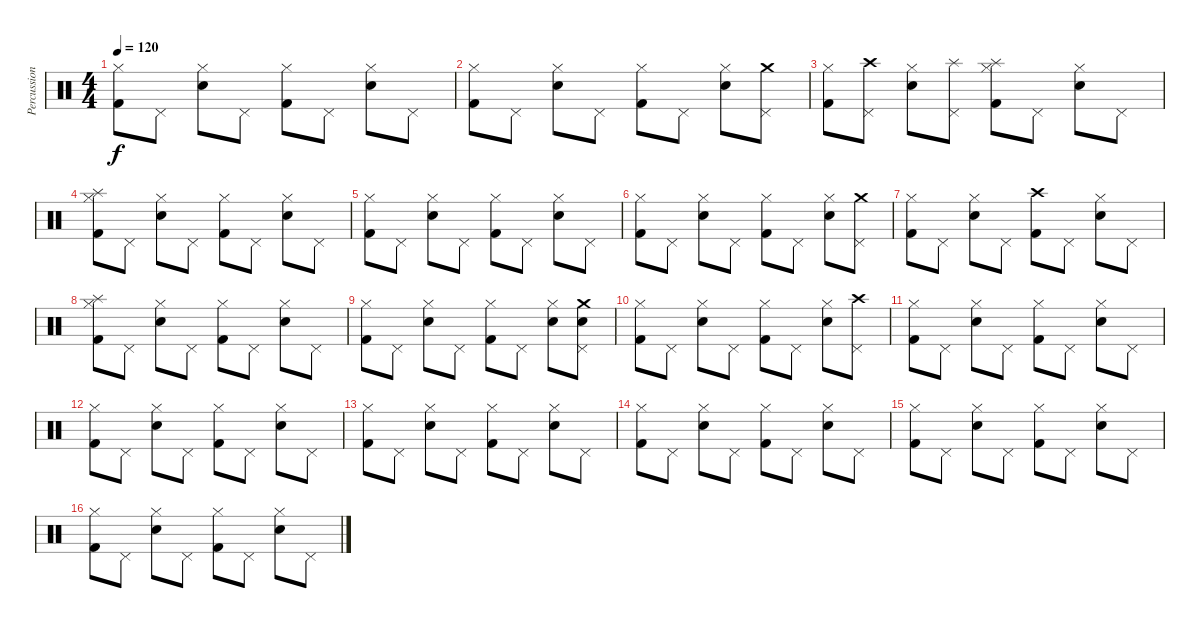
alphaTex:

\track ("Percussion" "Percussion") {instrument percussion}
\staff {score}
\articulation defaults
\ts (4 4)
\tempo 120
\clef neutral
\ks c
("Kick (hit) 2" "Hi-Hat (closed)").8{dy f} "Pedal Hi-Hat (hit)".8 ("Snare (hit) 2" "Hi-Hat (closed)").8 "Pedal Hi-Hat (hit)".8 ("Kick (hit) 2" "Hi-Hat (closed)").8 "Pedal Hi-Hat (hit)".8 ("Snare (hit) 2" "Hi-Hat (closed)").8 "Pedal Hi-Hat (hit)".8 |
("Kick (hit) 2" "Hi-Hat (closed)").8 "Pedal Hi-Hat (hit)".8 ("Snare (hit) 2" "Hi-Hat (closed)").8 "Pedal Hi-Hat (hit)".8 ("Kick (hit) 2" "Hi-Hat (closed)").8 "Pedal Hi-Hat (hit)".8 ("Snare (hit) 2" "Hi-Hat (closed)").8 ("Pedal Hi-Hat (hit)" "Crash medium (hit)").8 |
("Kick (hit) 2" "Hi-Hat (closed)").8 ("Pedal Hi-Hat (hit)" "Crash high (hit)").8 ("Snare (hit) 2" "Hi-Hat (closed)").8 ("Pedal Hi-Hat (hit)" "Splash (hit)").8 ("Kick (hit) 2" "Hi-Hat (closed)" "Splash (hit)").8 "Pedal Hi-Hat (hit)".8 ("Snare (hit) 2" "Hi-Hat (closed)").8 "Pedal Hi-Hat (hit)".8 |
("Kick (hit) 2" "Hi-Hat (closed)" "Splash (hit)").8 "Pedal Hi-Hat (hit)".8 ("Snare (hit) 2" "Hi-Hat (closed)").8 "Pedal Hi-Hat (hit)".8 ("Kick (hit) 2" "Hi-Hat (closed)").8 "Pedal Hi-Hat (hit)".8 ("Snare (hit) 2" "Hi-Hat (closed)").8 "Pedal Hi-Hat (hit)".8 |
("Kick (hit) 2" "Hi-Hat (closed)").8 "Pedal Hi-Hat (hit)".8 ("Snare (hit) 2" "Hi-Hat (closed)").8 "Pedal Hi-Hat (hit)".8 ("Kick (hit) 2" "Hi-Hat (closed)").8 "Pedal Hi-Hat (hit)".8 ("Snare (hit) 2" "Hi-Hat (closed)").8 "Pedal Hi-Hat (hit)".8 |
("Kick (hit) 2" "Hi-Hat (closed)").8 "Pedal Hi-Hat (hit)".8 ("Snare (hit) 2" "Hi-Hat (closed)").8 "Pedal Hi-Hat (hit)".8 ("Kick (hit) 2" "Hi-Hat (closed)").8 "Pedal Hi-Hat (hit)".8 ("Snare (hit) 2" "Hi-Hat (closed)").8 ("Pedal Hi-Hat (hit)" "Crash medium (hit)").8 |
("Kick (hit) 2" "Hi-Hat (closed)").8 "Pedal Hi-Hat (hit)".8 ("Snare (hit) 2" "Hi-Hat (closed)").8 "Pedal Hi-Hat (hit)".8 ("Kick (hit) 2" "Crash high (hit)").8 "Pedal Hi-Hat (hit)".8 ("Snare (hit) 2" "Hi-Hat (closed)").8 "Pedal Hi-Hat (hit)".8 |
("Kick (hit) 2" "Hi-Hat (closed)" "Splash (hit)").8 "Pedal Hi-Hat (hit)".8 ("Snare (hit) 2" "Hi-Hat (closed)").8 "Pedal Hi-Hat (hit)".8 ("Kick (hit) 2" "Hi-Hat (closed)").8 "Pedal Hi-Hat (hit)".8 ("Snare (hit) 2" "Hi-Hat (closed)").8 "Pedal Hi-Hat (hit)".8 |
("Kick (hit) 2" "Hi-Hat (closed)").8 "Pedal Hi-Hat (hit)".8 ("Snare (hit) 2" "Hi-Hat (closed)").8 "Pedal Hi-Hat (hit)".8 ("Kick (hit) 2" "Hi-Hat (closed)").8 "Pedal Hi-Hat (hit)".8 ("Snare (hit) 2" "Hi-Hat (closed)").8 ("Pedal Hi-Hat (hit)" "Crash medium (hit)" "Snare (hit) 2").8 |
("Kick (hit) 2" "Hi-Hat (closed)").8 "Pedal Hi-Hat (hit)".8 ("Snare (hit) 2" "Hi-Hat (closed)").8 "Pedal Hi-Hat (hit)".8 ("Kick (hit) 2" "Hi-Hat (closed)").8 "Pedal Hi-Hat (hit)".8 ("Snare (hit) 2" "Hi-Hat (closed)").8 ("Pedal Hi-Hat (hit)" "Crash high (hit)").8 |
("Kick (hit) 2" "Hi-Hat (closed)").8 "Pedal Hi-Hat (hit)".8 ("Snare (hit) 2" "Hi-Hat (closed)").8 "Pedal Hi-Hat (hit)".8 ("Kick (hit) 2" "Hi-Hat (closed)").8 "Pedal Hi-Hat (hit)".8 ("Snare (hit) 2" "Hi-Hat (closed)").8 "Pedal Hi-Hat (hit)".8 |
("Kick (hit) 2" "Hi-Hat (closed)").8 "Pedal Hi-Hat (hit)".8 ("Snare (hit) 2" "Hi-Hat (closed)").8 "Pedal Hi-Hat (hit)".8 ("Kick (hit) 2" "Hi-Hat (closed)").8 "Pedal Hi-Hat (hit)".8 ("Snare (hit) 2" "Hi-Hat (closed)").8 "Pedal Hi-Hat (hit)".8 |
("Kick (hit) 2" "Hi-Hat (closed)").8 "Pedal Hi-Hat (hit)".8 ("Snare (hit) 2" "Hi-Hat (closed)").8 "Pedal Hi-Hat (hit)".8 ("Kick (hit) 2" "Hi-Hat (closed)").8 "Pedal Hi-Hat (hit)".8 ("Snare (hit) 2" "Hi-Hat (closed)").8 "Pedal Hi-Hat (hit)".8 |
("Kick (hit) 2" "Hi-Hat (closed)").8 "Pedal Hi-Hat (hit)".8 ("Snare (hit) 2" "Hi-Hat (closed)").8 "Pedal Hi-Hat (hit)".8 ("Kick (hit) 2" "Hi-Hat (closed)").8 "Pedal Hi-Hat (hit)".8 ("Snare (hit) 2" "Hi-Hat (closed)").8 "Pedal Hi-Hat (hit)".8 |
("Kick (hit) 2" "Hi-Hat (closed)").8 "Pedal Hi-Hat (hit)".8 ("Snare (hit) 2" "Hi-Hat (closed)").8 "Pedal Hi-Hat (hit)".8 ("Kick (hit) 2" "Hi-Hat (closed)").8 "Pedal Hi-Hat (hit)".8 ("Snare (hit) 2" "Hi-Hat (closed)").8 "Pedal Hi-Hat (hit)".8 |
("Kick (hit) 2" "Hi-Hat (closed)").8 "Pedal Hi-Hat (hit)".8 ("Snare (hit) 2" "Hi-Hat (closed)").8 "Pedal Hi-Hat (hit)".8 ("Kick (hit) 2" "Hi-Hat (closed)").8 "Pedal Hi-Hat (hit)".8 ("Snare (hit) 2" "Hi-Hat (closed)").8 "Pedal Hi-Hat (hit)".8
